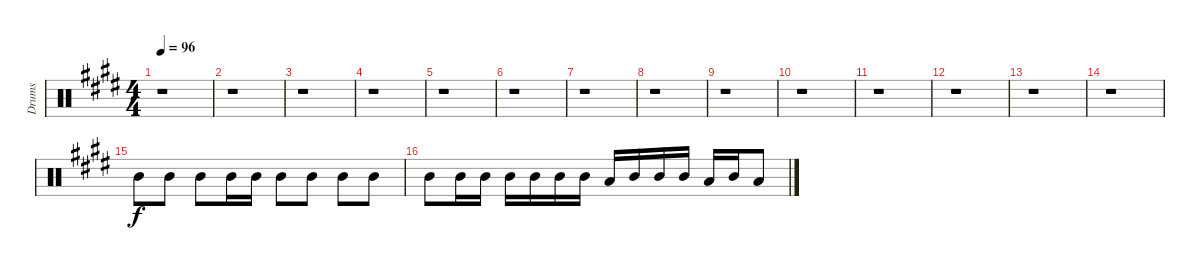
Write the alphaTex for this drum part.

\track ("Drums" "Drums") {instrument percussion}
\staff {score}
\articulation defaults
\ts (4 4)
\tempo 96
\clef neutral
\ks e
r.1{dy f} |
r.1 |
r.1 |
r.1 |
r.1 |
r.1 |
r.1 |
r.1 |
r.1 |
r.1 |
r.1 |
r.1 |
r.1 |
r.1 |
"Mid Tom (hit)".8 "Mid Tom (hit)".8 "Mid Tom (hit)".8 "Mid Tom (hit)".16 "Mid Tom (hit)".16 "Mid Tom (hit)".8 "Mid Tom (hit)".8 "Mid Tom (hit)".8 "Mid Tom (hit)".8 |
"Mid Tom (hit)".8 "Mid Tom (hit)".16 "Mid Tom (hit)".16 "Mid Tom (hit)".16 "Mid Tom (hit)".16 "Mid Tom (hit)".16 "Mid Tom (hit)".16 "Low Tom (hit)".16 "Mid Tom (hit)".16 "Mid Tom (hit)".16 "Mid Tom (hit)".16 "Low Tom (hit)".16 "Mid Tom (hit)".16 "Low Tom (hit)".8
